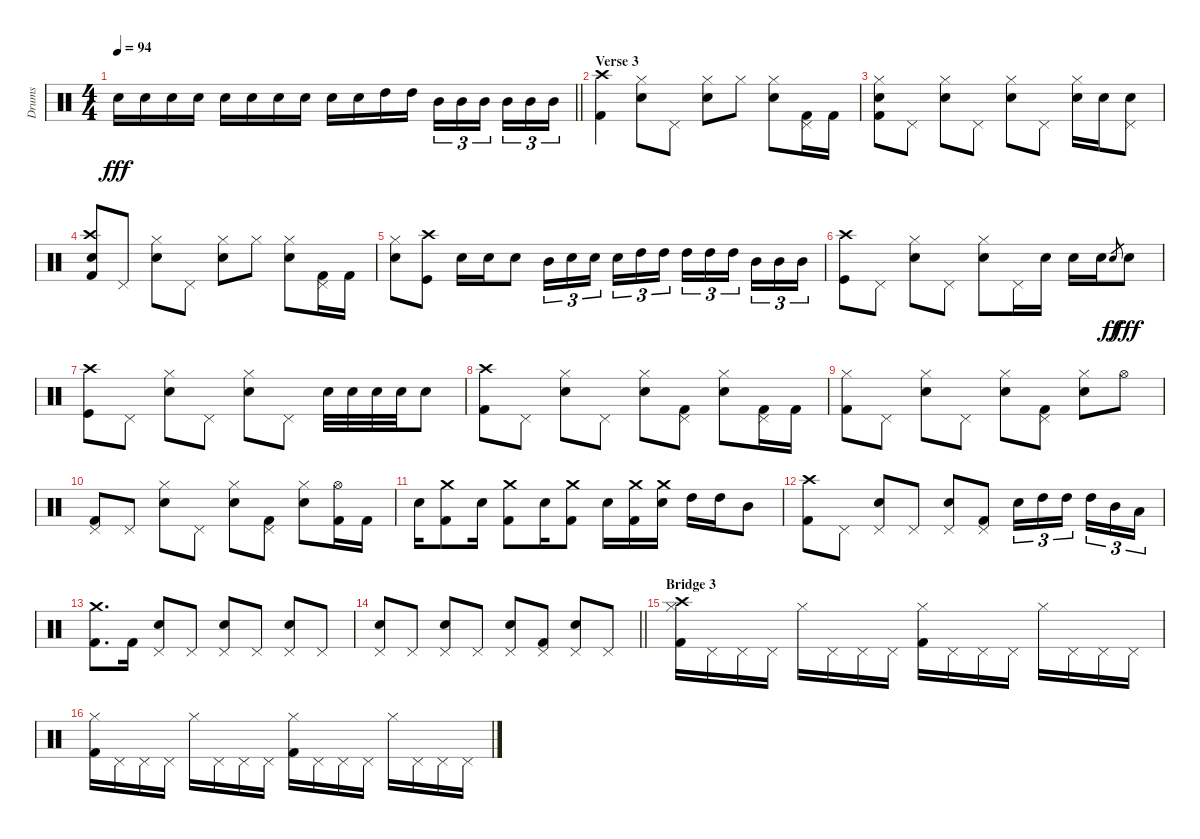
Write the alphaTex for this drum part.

\track ("Drums" "Drums") {instrument percussion}
\staff {score}
\articulation defaults
\ts (4 4)
\tempo 94
\clef neutral
\barLineRight lightlight
\ks c "Electric Snare (hit)".16{dy fff} "Electric Snare (hit)".16 "Electric Snare (hit)".16 "Electric Snare (hit)".16 "Electric Snare (hit)".16 "Electric Snare (hit)".16 "Electric Snare (hit)".16 "Electric Snare (hit)".16 "Electric Snare (hit)".16 "Electric Snare (hit)".16 "High Tom (hit)".16 "High Tom (hit)".16 "Mid Tom (hit)".16{tu (3 2)} "Mid Tom (hit)".16{tu (3 2)} "Mid Tom (hit)".16{tu (3 2) beam splitsecondary} "Mid Tom (hit)".16{tu (3 2)} "Mid Tom (hit)".16{tu (3 2)} "Mid Tom (hit)".16{tu (3 2)}
|
\section ("" "Verse 3")
("Crash high (hit)" "Kick (hit) 2").4 ("Hi-Hat (closed)" "Electric Snare (hit)").8 "Pedal Hi-Hat (hit)".8 ("Hi-Hat (closed)" "Electric Snare (hit)").8 "Hi-Hat (closed)".8 ("Hi-Hat (closed)" "Electric Snare (hit)").8 ("Pedal Hi-Hat (hit)" "Kick (hit) 2").16 "Kick (hit) 2".16 |
("Hi-Hat (closed)" "Electric Snare (hit)" "Kick (hit) 2").8 "Pedal Hi-Hat (hit)".8 ("Hi-Hat (closed)" "Electric Snare (hit)").8 "Pedal Hi-Hat (hit)".8 ("Hi-Hat (closed)" "Electric Snare (hit)").8 "Pedal Hi-Hat (hit)".8 ("Hi-Hat (closed)" "Electric Snare (hit)").16 "Electric Snare (hit)".16 ("Pedal Hi-Hat (hit)" "Electric Snare (hit)").8 |
("Crash high (hit)" "Electric Snare (hit)" "Kick (hit) 2").8 "Pedal Hi-Hat (hit)".8 ("Hi-Hat (closed)" "Electric Snare (hit)").8 "Pedal Hi-Hat (hit)".8 ("Hi-Hat (closed)" "Electric Snare (hit)").8 "Hi-Hat (closed)".8 ("Hi-Hat (closed)" "Electric Snare (hit)").8 ("Pedal Hi-Hat (hit)" "Kick (hit) 2").16 "Kick (hit) 2".16 |
("Hi-Hat (closed)" "Electric Snare (hit)").8 ("Crash high (hit)" "Kick (hit)").8 "Electric Snare (hit)".16 "Electric Snare (hit)".16 "Electric Snare (hit)".8 "Mid Tom (hit)".16{tu (3 2)} "Electric Snare (hit)".16{tu (3 2)} "Electric Snare (hit)".16{tu (3 2) beam splitsecondary} "Electric Snare (hit)".16{tu (3 2)} "High Tom (hit)".16{tu (3 2)} "High Tom (hit)".16{tu (3 2)} "High Tom (hit)".16{tu (3 2)} "High Tom (hit)".16{tu (3 2)} "High Tom (hit)".16{tu (3 2) beam splitsecondary} "Mid Tom (hit)".16{tu (3 2)} "Mid Tom (hit)".16{tu (3 2)} "Mid Tom (hit)".16{tu (3 2)} |
("Crash high (hit)" "Kick (hit)").8 "Pedal Hi-Hat (hit)".8 ("Hi-Hat (closed)" "Electric Snare (hit)").8 "Pedal Hi-Hat (hit)".8 ("Hi-Hat (closed)" "Electric Snare (hit)").8 "Pedal Hi-Hat (hit)".16 "Electric Snare (hit)".16 "Electric Snare (hit)".16 "Electric Snare (hit)".16 "Electric Snare (hit)".8{gr dy ff} "Electric Snare (hit)".8{dy fff} |
("Crash high (hit)" "Kick (hit)").8 "Pedal Hi-Hat (hit)".8 ("Hi-Hat (closed)" "Electric Snare (hit)").8 "Pedal Hi-Hat (hit)".8 ("Hi-Hat (closed)" "Electric Snare (hit)").8 "Pedal Hi-Hat (hit)".8 "Electric Snare (hit)".32 "Electric Snare (hit)".32 "Electric Snare (hit)".32 "Electric Snare (hit)".32 "Electric Snare (hit)".8 |
("Crash high (hit)" "Kick (hit) 2").8 "Pedal Hi-Hat (hit)".8 ("Hi-Hat (closed)" "Electric Snare (hit)").8 "Pedal Hi-Hat (hit)".8 ("Hi-Hat (closed)" "Electric Snare (hit)").8 ("Pedal Hi-Hat (hit)" "Kick (hit) 2").8 ("Hi-Hat (closed)" "Electric Snare (hit)").8 ("Pedal Hi-Hat (hit)" "Kick (hit) 2").16 "Kick (hit) 2".16 |
("Hi-Hat (closed)" "Kick (hit) 2").8 "Pedal Hi-Hat (hit)".8 ("Hi-Hat (closed)" "Electric Snare (hit)").8 "Pedal Hi-Hat (hit)".8 ("Hi-Hat (closed)" "Electric Snare (hit)").8 ("Pedal Hi-Hat (hit)" "Kick (hit) 2").8 ("Hi-Hat (closed)" "Electric Snare (hit)").8 "Hi-Hat (open)".8 |
("Pedal Hi-Hat (hit)" "Kick (hit) 2").8 "Pedal Hi-Hat (hit)".8 ("Hi-Hat (closed)" "Electric Snare (hit)").8 "Pedal Hi-Hat (hit)".8 ("Hi-Hat (closed)" "Electric Snare (hit)").8 ("Pedal Hi-Hat (hit)" "Kick (hit) 2").8 ("Hi-Hat (closed)" "Electric Snare (hit)").8 ("Hi-Hat (open)" "Kick (hit) 2").16 "Kick (hit) 2".16 |
"Electric Snare (hit)".16 ("Crash medium (hit)" "Kick (hit) 2").8 "Electric Snare (hit)".16 ("Crash medium (hit)" "Kick (hit) 2").8 "Electric Snare (hit)".16 ("Crash medium (hit)" "Kick (hit) 2").8 "Electric Snare (hit)".16 ("Crash medium (hit)" "Kick (hit) 2").16 ("Crash medium (hit)" "Electric Snare (hit)").16 "High Tom (hit)".16 "High Tom (hit)".16 "Mid Tom (hit)".8 |
("Crash high (hit)" "Kick (hit) 2").8 "Pedal Hi-Hat (hit)".8 ("Pedal Hi-Hat (hit)" "Electric Snare (hit)").8 "Pedal Hi-Hat (hit)".8 ("Pedal Hi-Hat (hit)" "Electric Snare (hit)").8 ("Pedal Hi-Hat (hit)" "Kick (hit) 2").8 "Electric Snare (hit)".16{tu (3 2)} "High Tom (hit)".16{tu (3 2)} "High Tom (hit)".16{tu (3 2) beam splitsecondary} "High Tom (hit)".16{tu (3 2)} "Mid Tom (hit)".16{tu (3 2)} "Low Tom (hit)".16{tu (3 2)} |
("Crash medium (hit)" "Kick (hit) 2").8{d} "Kick (hit) 2".16 ("Pedal Hi-Hat (hit)" "Electric Snare (hit)").8 "Pedal Hi-Hat (hit)".8 ("Pedal Hi-Hat (hit)" "Electric Snare (hit)").8 "Pedal Hi-Hat (hit)".8 ("Pedal Hi-Hat (hit)" "Electric Snare (hit)").8 "Pedal Hi-Hat (hit)".8 |
\barLineRight lightlight
("Pedal Hi-Hat (hit)" "Electric Snare (hit)").8 "Pedal Hi-Hat (hit)".8 ("Pedal Hi-Hat (hit)" "Electric Snare (hit)").8 "Pedal Hi-Hat (hit)".8 ("Pedal Hi-Hat (hit)" "Electric Snare (hit)").8 ("Pedal Hi-Hat (hit)" "Kick (hit) 2").8 ("Pedal Hi-Hat (hit)" "Electric Snare (hit)").8 "Pedal Hi-Hat (hit)".8 |
\section ("" "Bridge 3")
("Crash high (hit)" "Hi-Hat (closed)" "Kick (hit) 2").16 "Pedal Hi-Hat (hit)".16 "Pedal Hi-Hat (hit)".16 "Pedal Hi-Hat (hit)".16 "Hi-Hat (closed)".16 "Pedal Hi-Hat (hit)".16 "Pedal Hi-Hat (hit)".16 "Pedal Hi-Hat (hit)".16 ("Hi-Hat (closed)" "Kick (hit) 2").16 "Pedal Hi-Hat (hit)".16 "Pedal Hi-Hat (hit)".16 "Pedal Hi-Hat (hit)".16 "Hi-Hat (closed)".16 "Pedal Hi-Hat (hit)".16 "Pedal Hi-Hat (hit)".16 "Pedal Hi-Hat (hit)".16 |
("Hi-Hat (closed)" "Kick (hit) 2").16 "Pedal Hi-Hat (hit)".16 "Pedal Hi-Hat (hit)".16 "Pedal Hi-Hat (hit)".16 "Hi-Hat (closed)".16 "Pedal Hi-Hat (hit)".16 "Pedal Hi-Hat (hit)".16 "Pedal Hi-Hat (hit)".16 ("Hi-Hat (closed)" "Kick (hit) 2").16 "Pedal Hi-Hat (hit)".16 "Pedal Hi-Hat (hit)".16 "Pedal Hi-Hat (hit)".16 "Hi-Hat (closed)".16 "Pedal Hi-Hat (hit)".16 "Pedal Hi-Hat (hit)".16 "Pedal Hi-Hat (hit)".16
